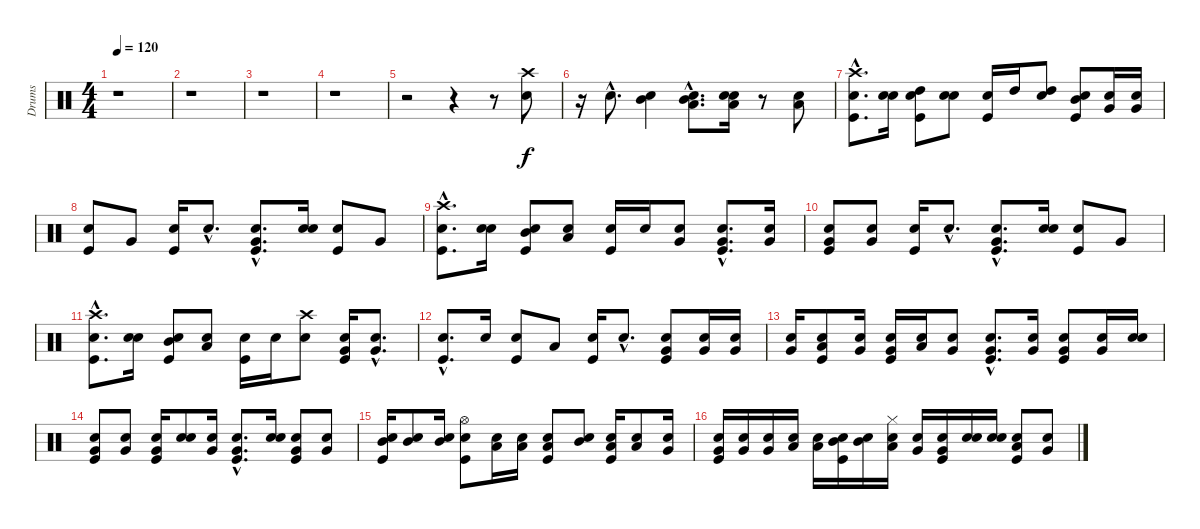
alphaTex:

\track ("Drums" "Drums") {instrument percussion}
\staff {score}
\articulation defaults
\ts (4 4)
\tempo 120
\clef neutral
\ks c
r.1{dy f} |
r.1 |
r.1 |
r.1 |
r.2 r.4 r.8 ("Electric Snare (hit)" "Crash high (hit)").8 |
r.16 "Electric Snare (hit)"{hac}.8{d} ("Snare (hit)" "Mid Tom (hit)").4 ("Snare (hit)"{hac} "Low Tom (hit)"{hac} "Mid Tom (hit)"{hac}).8{d} ("Snare (hit)" "Electric Snare (hit)" "Low Tom (hit)").16 r.8 ("Electric Snare (hit)" "Low Tom (hit)").8 |
("Snare (hit)"{hac} "Kick (hit)"{hac} "Crash high (hit)"{hac}).8{d} ("Snare (hit)" "Electric Snare (hit)").16 ("Snare (hit)" "Kick (hit)" "High Tom (hit)").8 ("Snare (hit)" "Electric Snare (hit)").8 ("Snare (hit)" "Kick (hit)").16 "High Tom (hit)".16 ("Snare (hit)" "High Tom (hit)").8 ("Snare (hit)" "Kick (hit)" "Mid Tom (hit)").8 ("Snare (hit)" "Very Low Tom (hit)").16 ("Snare (hit)" "Very Low Tom (hit)").16 |
("Snare (hit)" "Kick (hit)").8 "Very Low Tom (hit)".8 ("Snare (hit)" "Kick (hit)").16 "Electric Snare (hit)"{hac}.8{d} ("Snare (hit)"{hac} "Kick (hit)"{hac} "Very Low Tom (hit)"{hac}).8{d} ("Snare (hit)" "Electric Snare (hit)").16 ("Snare (hit)" "Kick (hit)").8 "Very Low Tom (hit)".8 |
("Snare (hit)"{hac} "Kick (hit)"{hac} "Crash high (hit)"{hac}).8{d} ("Snare (hit)" "Electric Snare (hit)").16 ("Snare (hit)" "Kick (hit)" "Mid Tom (hit)").8 ("Snare (hit)" "Low Tom (hit)").8 ("Snare (hit)" "Kick (hit)").16 "Electric Snare (hit)".16 ("Snare (hit)" "Very Low Tom (hit)").8 ("Snare (hit)"{hac} "Kick (hit)"{hac} "Very Low Tom (hit)"{hac}).8{d} ("Snare (hit)" "Very Low Tom (hit)").16 |
("Snare (hit)" "Kick (hit)" "Very Low Tom (hit)").8 ("Snare (hit)" "Very Low Tom (hit)").8 ("Snare (hit)" "Kick (hit)").16 "Electric Snare (hit)"{hac}.8{d} ("Snare (hit)"{hac} "Kick (hit)"{hac} "Very Low Tom (hit)"{hac}).8{d} ("Snare (hit)" "Electric Snare (hit)").16 ("Snare (hit)" "Kick (hit)").8 "Very Low Tom (hit)".8 |
("Snare (hit)"{hac} "Kick (hit)"{hac} "Crash high (hit)"{hac}).8{d} ("Snare (hit)" "Electric Snare (hit)").16 ("Snare (hit)" "Kick (hit)" "Mid Tom (hit)").8 ("Snare (hit)" "Low Tom (hit)").8 ("Snare (hit)" "Kick (hit)").16 "Electric Snare (hit)".16 ("Snare (hit)" "Crash high (hit)").8 ("Snare (hit)" "Kick (hit)" "Very Low Tom (hit)").16 ("Snare (hit)"{hac} "Very Low Tom (hit)"{hac}).8{d} |
("Snare (hit)"{hac} "Kick (hit)"{hac}).8{d} "Electric Snare (hit)".16 ("Snare (hit)" "Kick (hit)").8 "Low Tom (hit)".8 ("Snare (hit)" "Kick (hit)").16 "Electric Snare (hit)"{hac}.8{d} ("Snare (hit)" "Kick (hit)" "Very Low Tom (hit)").8 ("Snare (hit)" "Very Low Tom (hit)").16 ("Snare (hit)" "Very Low Tom (hit)").16 |
("Snare (hit)" "Very Low Tom (hit)").16 ("Snare (hit)" "Kick (hit)" "Low Tom (hit)").8 ("Snare (hit)" "Very Low Tom (hit)").16 ("Snare (hit)" "Kick (hit)" "Very Low Tom (hit)").16 ("Snare (hit)" "Low Tom (hit)").16 ("Snare (hit)" "Very Low Tom (hit)").8 ("Snare (hit)"{hac} "Kick (hit)"{hac} "Very Low Tom (hit)"{hac}).8{d} ("Snare (hit)" "Very Low Tom (hit)").16 ("Snare (hit)" "Kick (hit)" "Very Low Tom (hit)").8 ("Snare (hit)" "Very Low Tom (hit)").16 ("Snare (hit)" "Electric Snare (hit)").16 |
("Snare (hit)" "Kick (hit)" "Very Low Tom (hit)").8 ("Snare (hit)" "Very Low Tom (hit)").8 ("Snare (hit)" "Kick (hit)" "Very Low Tom (hit)").16 ("Snare (hit)" "Electric Snare (hit)").8 ("Snare (hit)" "Very Low Tom (hit)").16 ("Snare (hit)"{hac} "Kick (hit)"{hac} "Very Low Tom (hit)"{hac}).8{d} ("Snare (hit)" "Electric Snare (hit)").16 ("Snare (hit)" "Kick (hit)" "Very Low Tom (hit)").8 ("Snare (hit)" "Very Low Tom (hit)").8 |
("Snare (hit)" "Kick (hit)" "Mid Tom (hit)").16 ("Snare (hit)" "Mid Tom (hit)").8 ("Snare (hit)" "Mid Tom (hit)").16 ("Snare (hit)" "Kick (hit)" "Hi-Hat (open)").8 ("Snare (hit)" "Low Tom (hit)").16 ("Snare (hit)" "Low Tom (hit)").16 ("Snare (hit)" "Kick (hit)" "Low Tom (hit)").8 ("Snare (hit)" "Mid Tom (hit)").8 ("Snare (hit)" "Kick (hit)" "Low Tom (hit)").16 ("Snare (hit)" "Low Tom (hit)").8 ("Snare (hit)" "Very Low Tom (hit)").16 |
("Snare (hit)" "Kick (hit)" "Very Low Tom (hit)").16 ("Snare (hit)" "Very Low Tom (hit)").16 ("Snare (hit)" "Very Low Tom (hit)").16 ("Snare (hit)" "Low Tom (hit)").16 ("Snare (hit)" "Low Tom (hit)").16 ("Snare (hit)" "Kick (hit)" "Mid Tom (hit)").16 ("Snare (hit)" "Mid Tom (hit)").16 ("Snare (hit)" "Hi-Hat (closed)" "Low Tom (hit)").16 ("Snare (hit)" "Very Low Tom (hit)").16 ("Snare (hit)" "Kick (hit)" "Very Low Tom (hit)").16 ("Snare (hit)" "Electric Snare (hit)").16 ("Snare (hit)" "Electric Snare (hit)").16 ("Snare (hit)" "Kick (hit)" "Low Tom (hit)").8 ("Snare (hit)" "Very Low Tom (hit)").8
